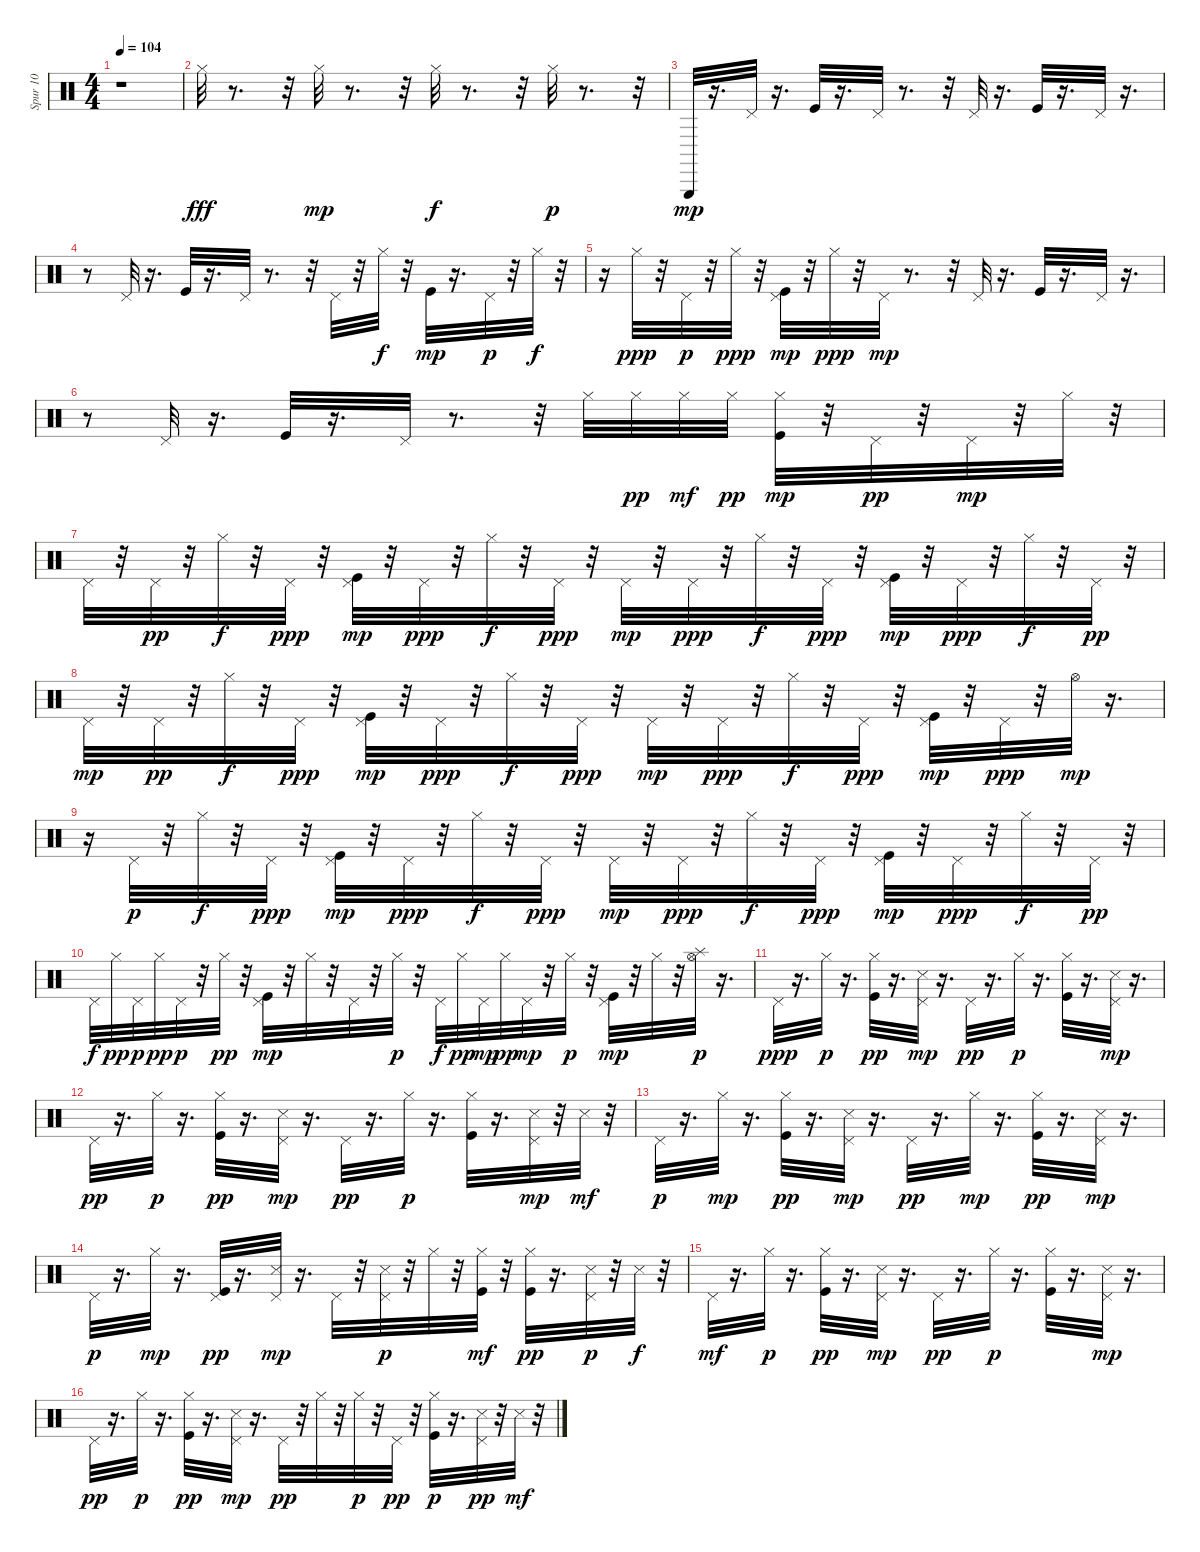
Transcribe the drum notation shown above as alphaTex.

\track ("Spur 10" "Spur 10") {instrument percussion}
\staff {score}
\articulation defaults
\ts (4 4)
\tempo 104
\clef neutral
\ks c
r.1{dy fff} |
"Hi-Hat (closed)".32 r.8{d} r.32 "Hi-Hat (closed)".32{dy mp} r.8{d} r.32 "Hi-Hat (closed)".32{dy f} r.8{d} r.32 "Hi-Hat (closed)".32{dy p} r.8{d} r.32 |
"Triangle (hit)".32{dy mp} r.16{d} "Pedal Hi-Hat (hit)".32 r.16{d} "Kick (hit)".32 r.16{d} "Pedal Hi-Hat (hit)".32 r.8{d} r.32 "Pedal Hi-Hat (hit)".32 r.16{d} "Kick (hit)".32 r.16{d} "Pedal Hi-Hat (hit)".32 r.16{d} |
r.8 "Pedal Hi-Hat (hit)".32 r.16{d} "Kick (hit)".32 r.16{d} "Pedal Hi-Hat (hit)".32 r.8{d} r.32 "Pedal Hi-Hat (hit)".32 r.32 "Hi-Hat (closed)".32{dy f} r.32 "Kick (hit)".32{dy mp} r.16{d} "Pedal Hi-Hat (hit)".32{dy p} r.32 "Hi-Hat (closed)".32{dy f} r.32 |
r.16 "Hi-Hat (closed)".32{dy ppp} r.32 "Pedal Hi-Hat (hit)".32{dy p} r.32 "Hi-Hat (closed)".32{dy ppp} r.32 ("Pedal Hi-Hat (hit)" "Kick (hit)").32{dy mp} r.32 "Hi-Hat (closed)".32{dy ppp} r.32 "Pedal Hi-Hat (hit)".32{dy mp} r.8{d} r.32 "Pedal Hi-Hat (hit)".32 r.16{d} "Kick (hit)".32 r.16{d} "Pedal Hi-Hat (hit)".32 r.16{d} |
r.8 "Pedal Hi-Hat (hit)".32 r.16{d} "Kick (hit)".32 r.16{d} "Pedal Hi-Hat (hit)".32 r.8{d} r.32 "Hi-Hat (closed)".32 "Hi-Hat (closed)".32{dy pp} "Hi-Hat (closed)".32{dy mf} "Hi-Hat (closed)".32{dy pp} ("Hi-Hat (closed)" "Kick (hit)").32{dy mp} r.32 "Pedal Hi-Hat (hit)".32{dy pp} r.32 "Pedal Hi-Hat (hit)".32{dy mp} r.32 "Hi-Hat (closed)".32 r.32 |
"Pedal Hi-Hat (hit)".32 r.32 "Pedal Hi-Hat (hit)".32{dy pp} r.32 "Hi-Hat (closed)".32{dy f} r.32 "Pedal Hi-Hat (hit)".32{dy ppp} r.32 ("Pedal Hi-Hat (hit)" "Kick (hit)").32{dy mp} r.32 "Pedal Hi-Hat (hit)".32{dy ppp} r.32 "Hi-Hat (closed)".32{dy f} r.32 "Pedal Hi-Hat (hit)".32{dy ppp} r.32 "Pedal Hi-Hat (hit)".32{dy mp} r.32 "Pedal Hi-Hat (hit)".32{dy ppp} r.32 "Hi-Hat (closed)".32{dy f} r.32 "Pedal Hi-Hat (hit)".32{dy ppp} r.32 ("Pedal Hi-Hat (hit)" "Kick (hit)").32{dy mp} r.32 "Pedal Hi-Hat (hit)".32{dy ppp} r.32 "Hi-Hat (closed)".32{dy f} r.32 "Pedal Hi-Hat (hit)".32{dy pp} r.32 |
"Pedal Hi-Hat (hit)".32{dy mp} r.32 "Pedal Hi-Hat (hit)".32{dy pp} r.32 "Hi-Hat (closed)".32{dy f} r.32 "Pedal Hi-Hat (hit)".32{dy ppp} r.32 ("Pedal Hi-Hat (hit)" "Kick (hit)").32{dy mp} r.32 "Pedal Hi-Hat (hit)".32{dy ppp} r.32 "Hi-Hat (closed)".32{dy f} r.32 "Pedal Hi-Hat (hit)".32{dy ppp} r.32 "Pedal Hi-Hat (hit)".32{dy mp} r.32 "Pedal Hi-Hat (hit)".32{dy ppp} r.32 "Hi-Hat (closed)".32{dy f} r.32 "Pedal Hi-Hat (hit)".32{dy ppp} r.32 ("Pedal Hi-Hat (hit)" "Kick (hit)").32{dy mp} r.32 "Pedal Hi-Hat (hit)".32{dy ppp} r.32 "Hi-Hat (open)".32{dy mp} r.16{d} |
r.16 "Pedal Hi-Hat (hit)".32{dy p} r.32 "Hi-Hat (closed)".32{dy f} r.32 "Pedal Hi-Hat (hit)".32{dy ppp} r.32 ("Pedal Hi-Hat (hit)" "Kick (hit)").32{dy mp} r.32 "Pedal Hi-Hat (hit)".32{dy ppp} r.32 "Hi-Hat (closed)".32{dy f} r.32 "Pedal Hi-Hat (hit)".32{dy ppp} r.32 "Pedal Hi-Hat (hit)".32{dy mp} r.32 "Pedal Hi-Hat (hit)".32{dy ppp} r.32 "Hi-Hat (closed)".32{dy f} r.32 "Pedal Hi-Hat (hit)".32{dy ppp} r.32 ("Pedal Hi-Hat (hit)" "Kick (hit)").32{dy mp} r.32 "Pedal Hi-Hat (hit)".32{dy ppp} r.32 "Hi-Hat (closed)".32{dy f} r.32 "Pedal Hi-Hat (hit)".32{dy pp} r.32 |
"Pedal Hi-Hat (hit)".32{dy f} "Hi-Hat (closed)".32{dy pp} "Pedal Hi-Hat (hit)".32{dy p} "Hi-Hat (closed)".32{dy pp} "Pedal Hi-Hat (hit)".32{dy p} r.32 "Hi-Hat (closed)".32{dy pp} r.32 ("Kick (hit)" "Pedal Hi-Hat (hit)").32{dy mp} r.32 "Hi-Hat (closed)".32 r.32 "Pedal Hi-Hat (hit)".32 r.32 "Hi-Hat (closed)".32{dy p} r.32 "Pedal Hi-Hat (hit)".32{dy f} "Hi-Hat (closed)".32{dy pp} "Pedal Hi-Hat (hit)".32{dy mp} "Hi-Hat (closed)".32{dy pp} "Pedal Hi-Hat (hit)".32{dy mp} r.32 "Hi-Hat (closed)".32{dy p} r.32 ("Kick (hit)" "Pedal Hi-Hat (hit)").32{dy mp} r.32 "Hi-Hat (closed)".32 r.32 ("Splash (hit)" "Hi-Hat (open)").32{dy p} r.16{d} |
"Pedal Hi-Hat (hit)".32{dy ppp} r.16{d} "Hi-Hat (closed)".32{dy p} r.16{d} ("Kick (hit)" "Hi-Hat (closed)").32{dy pp} r.16{d} ("Pedal Hi-Hat (hit)" "Snare (side stick) 3").32{dy mp} r.16{d} "Pedal Hi-Hat (hit)".32{dy pp} r.16{d} "Hi-Hat (closed)".32{dy p} r.16{d} ("Kick (hit)" "Hi-Hat (closed)").32 r.16{d} ("Pedal Hi-Hat (hit)" "Snare (side stick) 3").32{dy mp} r.16{d} |
"Pedal Hi-Hat (hit)".32{dy pp} r.16{d} "Hi-Hat (closed)".32{dy p} r.16{d} ("Kick (hit)" "Hi-Hat (closed)").32{dy pp} r.16{d} ("Pedal Hi-Hat (hit)" "Snare (side stick) 3").32{dy mp} r.16{d} "Pedal Hi-Hat (hit)".32{dy pp} r.16{d} "Hi-Hat (closed)".32{dy p} r.16{d} ("Kick (hit)" "Hi-Hat (closed)").32 r.16{d} ("Pedal Hi-Hat (hit)" "Snare (side stick) 3").32{dy mp} r.32 "Snare (side stick) 3".32{dy mf} r.32 |
"Pedal Hi-Hat (hit)".32{dy p} r.16{d} "Hi-Hat (closed)".32{dy mp} r.16{d} ("Kick (hit)" "Hi-Hat (closed)").32{dy pp} r.16{d} ("Pedal Hi-Hat (hit)" "Snare (side stick) 3").32{dy mp} r.16{d} "Pedal Hi-Hat (hit)".32{dy pp} r.16{d} "Hi-Hat (closed)".32{dy mp} r.16{d} ("Kick (hit)" "Hi-Hat (closed)").32{dy pp} r.16{d} ("Pedal Hi-Hat (hit)" "Snare (side stick) 3").32{dy mp} r.16{d} |
"Pedal Hi-Hat (hit)".32{dy p} r.16{d} "Hi-Hat (closed)".32{dy mp} r.16{d} ("Kick (hit)" "Pedal Hi-Hat (hit)").32{dy pp} r.16{d} ("Pedal Hi-Hat (hit)" "Snare (side stick) 3").32{dy mp} r.16{d} "Pedal Hi-Hat (hit)".32 r.32 ("Pedal Hi-Hat (hit)" "Snare (side stick) 3").32{dy p} r.32 "Hi-Hat (closed)".32 r.32 ("Kick (hit)" "Hi-Hat (closed)").32{dy mf} r.32 ("Kick (hit)" "Hi-Hat (closed)").32{dy pp} r.16{d} ("Pedal Hi-Hat (hit)" "Snare (side stick) 3").32{dy p} r.32 "Snare (side stick) 3".32{dy f} r.32 |
"Pedal Hi-Hat (hit)".32{dy mf} r.16{d} "Hi-Hat (closed)".32{dy p} r.16{d} ("Kick (hit)" "Hi-Hat (closed)").32{dy pp} r.16{d} ("Pedal Hi-Hat (hit)" "Snare (side stick) 3").32{dy mp} r.16{d} "Pedal Hi-Hat (hit)".32{dy pp} r.16{d} "Hi-Hat (closed)".32{dy p} r.16{d} ("Kick (hit)" "Hi-Hat (closed)").32 r.16{d} ("Pedal Hi-Hat (hit)" "Snare (side stick) 3").32{dy mp} r.16{d} |
"Pedal Hi-Hat (hit)".32{dy pp} r.16{d} "Hi-Hat (closed)".32{dy p} r.16{d} ("Kick (hit)" "Hi-Hat (closed)").32{dy pp} r.16{d} ("Pedal Hi-Hat (hit)" "Snare (side stick) 3").32{dy mp} r.16{d} "Pedal Hi-Hat (hit)".32{dy pp} r.32 "Hi-Hat (closed)".32 r.32 "Hi-Hat (closed)".32{dy p} r.32 "Pedal Hi-Hat (hit)".32{dy pp} r.32 ("Kick (hit)" "Hi-Hat (closed)").32{dy p} r.16{d} ("Pedal Hi-Hat (hit)" "Snare (side stick) 3").32{dy pp} r.32 "Snare (side stick) 3".32{dy mf} r.32
